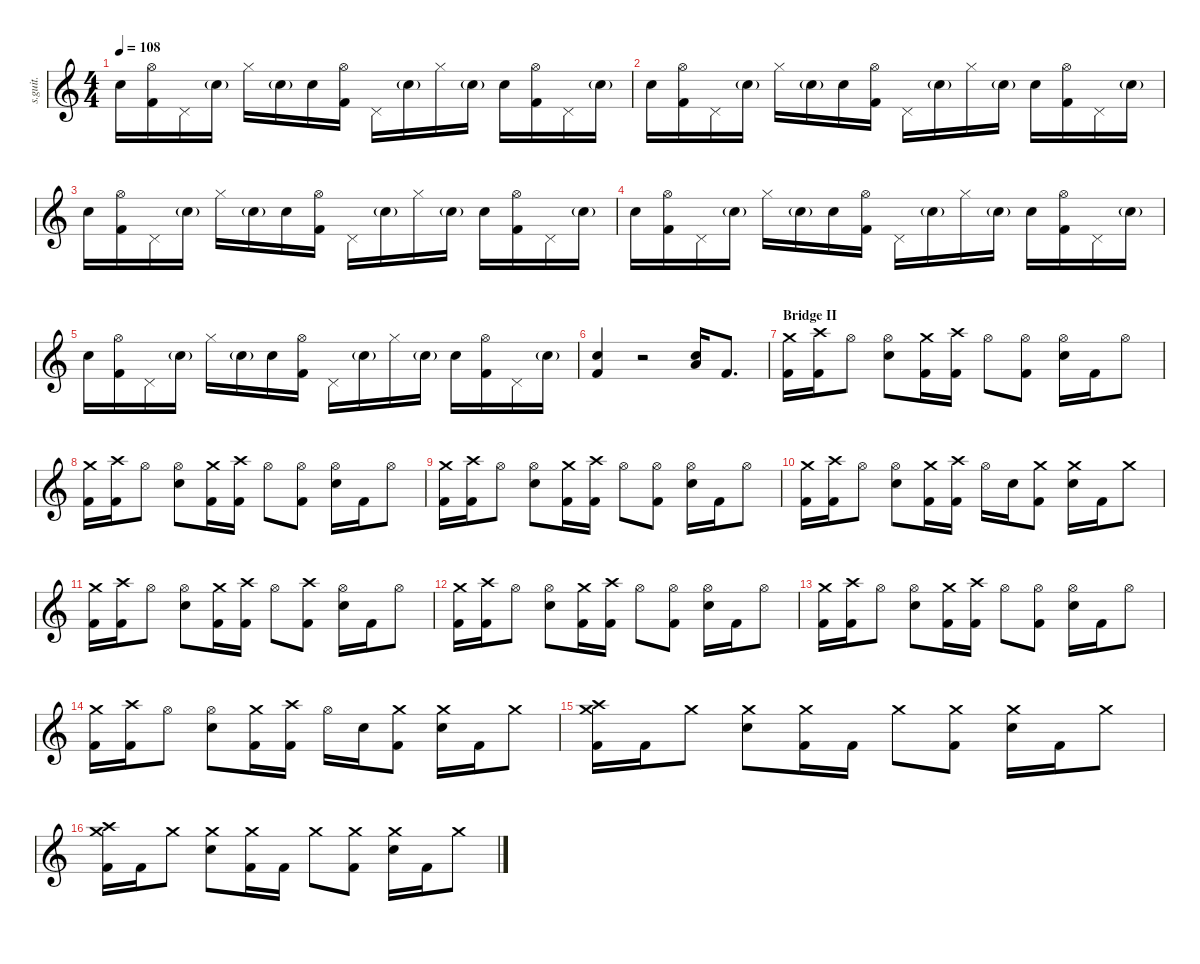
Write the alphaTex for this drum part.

\defaultSystemsLayout 4
\hideDynamics
\bracketExtendMode nobrackets
\track ("John Otto" "s.guit.") {instrument percussion}
\staff {score}
\articulation defaults
\ts (4 4)
\tempo 108
\clef g2
\ks c "Snare (hit) 2".16{lyrics (0 "") lyrics (1 "") lyrics (2 "") lyrics (3 "") lyrics (4 "") dy ff}
("Kick (hit) 2" "Hi-Hat (open)").16{lyrics (0 "") lyrics (1 "") lyrics (2 "") lyrics (3 "") lyrics (4 "")} "Pedal Hi-Hat (hit)".16{lyrics (0 "") lyrics (1 "") lyrics (2 "") lyrics (3 "") lyrics (4 "")} "Snare (hit) 2"{g}.16{lyrics (0 "") lyrics (1 "") lyrics (2 "") lyrics (3 "") lyrics (4 "")} "Hi-Hat (closed)".16{lyrics (0 "") lyrics (1 "") lyrics (2 "") lyrics (3 "") lyrics (4 "")} "Snare (hit) 2"{g}.16{lyrics (0 "") lyrics (1 "") lyrics (2 "") lyrics (3 "") lyrics (4 "")} "Snare (hit) 2".16{lyrics (0 "") lyrics (1 "") lyrics (2 "") lyrics (3 "") lyrics (4 "")} ("Kick (hit) 2" "Hi-Hat (open)").16{lyrics (0 "") lyrics (1 "") lyrics (2 "") lyrics (3 "") lyrics (4 "")} "Pedal Hi-Hat (hit)".16{lyrics (0 "") lyrics (1 "") lyrics (2 "") lyrics (3 "") lyrics (4 "")} "Snare (hit) 2"{g}.16{lyrics (0 "") lyrics (1 "") lyrics (2 "") lyrics (3 "") lyrics (4 "")} "Hi-Hat (closed)".16{lyrics (0 "") lyrics (1 "") lyrics (2 "") lyrics (3 "") lyrics (4 "")} "Snare (hit) 2"{g}.16{lyrics (0 "") lyrics (1 "") lyrics (2 "") lyrics (3 "") lyrics (4 "")} "Snare (hit) 2".16{lyrics (0 "") lyrics (1 "") lyrics (2 "") lyrics (3 "") lyrics (4 "")} ("Kick (hit) 2" "Hi-Hat (open)").16{lyrics (0 "") lyrics (1 "") lyrics (2 "") lyrics (3 "") lyrics (4 "")} "Pedal Hi-Hat (hit)".16{lyrics (0 "") lyrics (1 "") lyrics (2 "") lyrics (3 "") lyrics (4 "")} "Snare (hit) 2"{g}.16{lyrics (0 "") lyrics (1 "") lyrics (2 "") lyrics (3 "") lyrics (4 "")} |
"Snare (hit) 2".16{lyrics (0 "") lyrics (1 "") lyrics (2 "") lyrics (3 "") lyrics (4 "")} ("Kick (hit) 2" "Hi-Hat (open)").16{lyrics (0 "") lyrics (1 "") lyrics (2 "") lyrics (3 "") lyrics (4 "")} "Pedal Hi-Hat (hit)".16{lyrics (0 "") lyrics (1 "") lyrics (2 "") lyrics (3 "") lyrics (4 "")} "Snare (hit) 2"{g}.16{lyrics (0 "") lyrics (1 "") lyrics (2 "") lyrics (3 "") lyrics (4 "")} "Hi-Hat (closed)".16{lyrics (0 "") lyrics (1 "") lyrics (2 "") lyrics (3 "") lyrics (4 "")} "Snare (hit) 2"{g}.16{lyrics (0 "") lyrics (1 "") lyrics (2 "") lyrics (3 "") lyrics (4 "")} "Snare (hit) 2".16{lyrics (0 "") lyrics (1 "") lyrics (2 "") lyrics (3 "") lyrics (4 "")} ("Kick (hit) 2" "Hi-Hat (open)").16{lyrics (0 "") lyrics (1 "") lyrics (2 "") lyrics (3 "") lyrics (4 "")} "Pedal Hi-Hat (hit)".16{lyrics (0 "") lyrics (1 "") lyrics (2 "") lyrics (3 "") lyrics (4 "")} "Snare (hit) 2"{g}.16{lyrics (0 "") lyrics (1 "") lyrics (2 "") lyrics (3 "") lyrics (4 "")} "Hi-Hat (closed)".16{lyrics (0 "") lyrics (1 "") lyrics (2 "") lyrics (3 "") lyrics (4 "")} "Snare (hit) 2"{g}.16{lyrics (0 "") lyrics (1 "") lyrics (2 "") lyrics (3 "") lyrics (4 "")} "Snare (hit) 2".16{lyrics (0 "") lyrics (1 "") lyrics (2 "") lyrics (3 "") lyrics (4 "")} ("Kick (hit) 2" "Hi-Hat (open)").16{lyrics (0 "") lyrics (1 "") lyrics (2 "") lyrics (3 "") lyrics (4 "")} "Pedal Hi-Hat (hit)".16{lyrics (0 "") lyrics (1 "") lyrics (2 "") lyrics (3 "") lyrics (4 "")} "Snare (hit) 2"{g}.16{lyrics (0 "") lyrics (1 "") lyrics (2 "") lyrics (3 "") lyrics (4 "")} |
"Snare (hit) 2".16{lyrics (0 "") lyrics (1 "") lyrics (2 "") lyrics (3 "") lyrics (4 "")} ("Kick (hit) 2" "Hi-Hat (open)").16{lyrics (0 "") lyrics (1 "") lyrics (2 "") lyrics (3 "") lyrics (4 "")} "Pedal Hi-Hat (hit)".16{lyrics (0 "") lyrics (1 "") lyrics (2 "") lyrics (3 "") lyrics (4 "")} "Snare (hit) 2"{g}.16{lyrics (0 "") lyrics (1 "") lyrics (2 "") lyrics (3 "") lyrics (4 "")} "Hi-Hat (closed)".16{lyrics (0 "") lyrics (1 "") lyrics (2 "") lyrics (3 "") lyrics (4 "")} "Snare (hit) 2"{g}.16{lyrics (0 "") lyrics (1 "") lyrics (2 "") lyrics (3 "") lyrics (4 "")} "Snare (hit) 2".16{lyrics (0 "") lyrics (1 "") lyrics (2 "") lyrics (3 "") lyrics (4 "")} ("Kick (hit) 2" "Hi-Hat (open)").16{lyrics (0 "") lyrics (1 "") lyrics (2 "") lyrics (3 "") lyrics (4 "")} "Pedal Hi-Hat (hit)".16{lyrics (0 "") lyrics (1 "") lyrics (2 "") lyrics (3 "") lyrics (4 "")} "Snare (hit) 2"{g}.16{lyrics (0 "") lyrics (1 "") lyrics (2 "") lyrics (3 "") lyrics (4 "")} "Hi-Hat (closed)".16{lyrics (0 "") lyrics (1 "") lyrics (2 "") lyrics (3 "") lyrics (4 "")} "Snare (hit) 2"{g}.16{lyrics (0 "") lyrics (1 "") lyrics (2 "") lyrics (3 "") lyrics (4 "")} "Snare (hit) 2".16{lyrics (0 "") lyrics (1 "") lyrics (2 "") lyrics (3 "") lyrics (4 "")} ("Kick (hit) 2" "Hi-Hat (open)").16{lyrics (0 "") lyrics (1 "") lyrics (2 "") lyrics (3 "") lyrics (4 "")} "Pedal Hi-Hat (hit)".16{lyrics (0 "") lyrics (1 "") lyrics (2 "") lyrics (3 "") lyrics (4 "")} "Snare (hit) 2"{g}.16{lyrics (0 "") lyrics (1 "") lyrics (2 "") lyrics (3 "") lyrics (4 "")} |
"Snare (hit) 2".16{lyrics (0 "") lyrics (1 "") lyrics (2 "") lyrics (3 "") lyrics (4 "")} ("Kick (hit) 2" "Hi-Hat (open)").16{lyrics (0 "") lyrics (1 "") lyrics (2 "") lyrics (3 "") lyrics (4 "")} "Pedal Hi-Hat (hit)".16{lyrics (0 "") lyrics (1 "") lyrics (2 "") lyrics (3 "") lyrics (4 "")} "Snare (hit) 2"{g}.16{lyrics (0 "") lyrics (1 "") lyrics (2 "") lyrics (3 "") lyrics (4 "")} "Hi-Hat (closed)".16{lyrics (0 "") lyrics (1 "") lyrics (2 "") lyrics (3 "") lyrics (4 "")} "Snare (hit) 2"{g}.16{lyrics (0 "") lyrics (1 "") lyrics (2 "") lyrics (3 "") lyrics (4 "")} "Snare (hit) 2".16{lyrics (0 "") lyrics (1 "") lyrics (2 "") lyrics (3 "") lyrics (4 "")} ("Kick (hit) 2" "Hi-Hat (open)").16{lyrics (0 "") lyrics (1 "") lyrics (2 "") lyrics (3 "") lyrics (4 "")} "Pedal Hi-Hat (hit)".16{lyrics (0 "") lyrics (1 "") lyrics (2 "") lyrics (3 "") lyrics (4 "")} "Snare (hit) 2"{g}.16{lyrics (0 "") lyrics (1 "") lyrics (2 "") lyrics (3 "") lyrics (4 "")} "Hi-Hat (closed)".16{lyrics (0 "") lyrics (1 "") lyrics (2 "") lyrics (3 "") lyrics (4 "")} "Snare (hit) 2"{g}.16{lyrics (0 "") lyrics (1 "") lyrics (2 "") lyrics (3 "") lyrics (4 "")} "Snare (hit) 2".16{lyrics (0 "") lyrics (1 "") lyrics (2 "") lyrics (3 "") lyrics (4 "")} ("Kick (hit) 2" "Hi-Hat (open)").16{lyrics (0 "") lyrics (1 "") lyrics (2 "") lyrics (3 "") lyrics (4 "")} "Pedal Hi-Hat (hit)".16{lyrics (0 "") lyrics (1 "") lyrics (2 "") lyrics (3 "") lyrics (4 "")} "Snare (hit) 2"{g}.16{lyrics (0 "") lyrics (1 "") lyrics (2 "") lyrics (3 "") lyrics (4 "")} |
"Snare (hit) 2".16{lyrics (0 "") lyrics (1 "") lyrics (2 "") lyrics (3 "") lyrics (4 "")} ("Kick (hit) 2" "Hi-Hat (open)").16{lyrics (0 "") lyrics (1 "") lyrics (2 "") lyrics (3 "") lyrics (4 "")} "Pedal Hi-Hat (hit)".16{lyrics (0 "") lyrics (1 "") lyrics (2 "") lyrics (3 "") lyrics (4 "")} "Snare (hit) 2"{g}.16{lyrics (0 "") lyrics (1 "") lyrics (2 "") lyrics (3 "") lyrics (4 "")} "Hi-Hat (closed)".16{lyrics (0 "") lyrics (1 "") lyrics (2 "") lyrics (3 "") lyrics (4 "")} "Snare (hit) 2"{g}.16{lyrics (0 "") lyrics (1 "") lyrics (2 "") lyrics (3 "") lyrics (4 "")} "Snare (hit) 2".16{lyrics (0 "") lyrics (1 "") lyrics (2 "") lyrics (3 "") lyrics (4 "")} ("Kick (hit) 2" "Hi-Hat (open)").16{lyrics (0 "") lyrics (1 "") lyrics (2 "") lyrics (3 "") lyrics (4 "")} "Pedal Hi-Hat (hit)".16{lyrics (0 "") lyrics (1 "") lyrics (2 "") lyrics (3 "") lyrics (4 "")} "Snare (hit) 2"{g}.16{lyrics (0 "") lyrics (1 "") lyrics (2 "") lyrics (3 "") lyrics (4 "")} "Hi-Hat (closed)".16{lyrics (0 "") lyrics (1 "") lyrics (2 "") lyrics (3 "") lyrics (4 "")} "Snare (hit) 2"{g}.16{lyrics (0 "") lyrics (1 "") lyrics (2 "") lyrics (3 "") lyrics (4 "")} "Snare (hit) 2".16{lyrics (0 "") lyrics (1 "") lyrics (2 "") lyrics (3 "") lyrics (4 "")} ("Kick (hit) 2" "Hi-Hat (open)").16{lyrics (0 "") lyrics (1 "") lyrics (2 "") lyrics (3 "") lyrics (4 "")} "Pedal Hi-Hat (hit)".16{lyrics (0 "") lyrics (1 "") lyrics (2 "") lyrics (3 "") lyrics (4 "")} "Snare (hit) 2"{g}.16{lyrics (0 "") lyrics (1 "") lyrics (2 "") lyrics (3 "") lyrics (4 "")} |
("Kick (hit) 2" "Snare (hit) 2").4{lyrics (0 "") lyrics (1 "") lyrics (2 "") lyrics (3 "") lyrics (4 "")} r.2 ("Snare (hit) 2" "Low Floor Tom (hit)").16{lyrics (0 "") lyrics (1 "") lyrics (2 "") lyrics (3 "") lyrics (4 "")} "Kick (hit) 2".8{d lyrics (0 "") lyrics (1 "") lyrics (2 "") lyrics (3 "") lyrics (4 "")} |
\section ("" "Bridge II")
("Kick (hit) 2" "Crash medium (hit)").16{lyrics (0 "") lyrics (1 "") lyrics (2 "") lyrics (3 "") lyrics (4 "")} ("Crash high (hit)" "Kick (hit) 2").16{lyrics (0 "") lyrics (1 "") lyrics (2 "") lyrics (3 "") lyrics (4 "")} "Hi-Hat (open)".8{lyrics (0 "") lyrics (1 "") lyrics (2 "") lyrics (3 "") lyrics (4 "")} ("Hi-Hat (open)" "Snare (hit) 2").8{lyrics (0 "") lyrics (1 "") lyrics (2 "") lyrics (3 "") lyrics (4 "")} ("Kick (hit) 2" "Crash medium (hit)").16{lyrics (0 "") lyrics (1 "") lyrics (2 "") lyrics (3 "") lyrics (4 "")} ("Kick (hit) 2" "Crash high (hit)").16{lyrics (0 "") lyrics (1 "") lyrics (2 "") lyrics (3 "") lyrics (4 "")} "Hi-Hat (open)".8{lyrics (0 "") lyrics (1 "") lyrics (2 "") lyrics (3 "") lyrics (4 "")} ("Hi-Hat (open)" "Kick (hit) 2").8{lyrics (0 "") lyrics (1 "") lyrics (2 "") lyrics (3 "") lyrics (4 "")} ("Hi-Hat (open)" "Snare (hit) 2").16{lyrics (0 "") lyrics (1 "") lyrics (2 "") lyrics (3 "") lyrics (4 "")} "Kick (hit) 2".16{lyrics (0 "") lyrics (1 "") lyrics (2 "") lyrics (3 "") lyrics (4 "")} "Hi-Hat (open)".8{lyrics (0 "") lyrics (1 "") lyrics (2 "") lyrics (3 "") lyrics (4 "")} |
("Kick (hit) 2" "Crash medium (hit)").16{lyrics (0 "") lyrics (1 "") lyrics (2 "") lyrics (3 "") lyrics (4 "")} ("Crash high (hit)" "Kick (hit) 2").16{lyrics (0 "") lyrics (1 "") lyrics (2 "") lyrics (3 "") lyrics (4 "")} "Hi-Hat (open)".8{lyrics (0 "") lyrics (1 "") lyrics (2 "") lyrics (3 "") lyrics (4 "")} ("Hi-Hat (open)" "Snare (hit) 2").8{lyrics (0 "") lyrics (1 "") lyrics (2 "") lyrics (3 "") lyrics (4 "")} ("Kick (hit) 2" "Crash medium (hit)").16{lyrics (0 "") lyrics (1 "") lyrics (2 "") lyrics (3 "") lyrics (4 "")} ("Kick (hit) 2" "Crash high (hit)").16{lyrics (0 "") lyrics (1 "") lyrics (2 "") lyrics (3 "") lyrics (4 "")} "Hi-Hat (open)".8{lyrics (0 "") lyrics (1 "") lyrics (2 "") lyrics (3 "") lyrics (4 "")} ("Hi-Hat (open)" "Kick (hit) 2").8{lyrics (0 "") lyrics (1 "") lyrics (2 "") lyrics (3 "") lyrics (4 "")} ("Hi-Hat (open)" "Snare (hit) 2").16{lyrics (0 "") lyrics (1 "") lyrics (2 "") lyrics (3 "") lyrics (4 "")} "Kick (hit) 2".16{lyrics (0 "") lyrics (1 "") lyrics (2 "") lyrics (3 "") lyrics (4 "")} "Hi-Hat (open)".8{lyrics (0 "") lyrics (1 "") lyrics (2 "") lyrics (3 "") lyrics (4 "")} |
("Kick (hit) 2" "Crash medium (hit)").16{lyrics (0 "") lyrics (1 "") lyrics (2 "") lyrics (3 "") lyrics (4 "")} ("Crash high (hit)" "Kick (hit) 2").16{lyrics (0 "") lyrics (1 "") lyrics (2 "") lyrics (3 "") lyrics (4 "")} "Hi-Hat (open)".8{lyrics (0 "") lyrics (1 "") lyrics (2 "") lyrics (3 "") lyrics (4 "")} ("Hi-Hat (open)" "Snare (hit) 2").8{lyrics (0 "") lyrics (1 "") lyrics (2 "") lyrics (3 "") lyrics (4 "")} ("Kick (hit) 2" "Crash medium (hit)").16{lyrics (0 "") lyrics (1 "") lyrics (2 "") lyrics (3 "") lyrics (4 "")} ("Kick (hit) 2" "Crash high (hit)").16{lyrics (0 "") lyrics (1 "") lyrics (2 "") lyrics (3 "") lyrics (4 "")} "Hi-Hat (open)".8{lyrics (0 "") lyrics (1 "") lyrics (2 "") lyrics (3 "") lyrics (4 "")} ("Hi-Hat (open)" "Kick (hit) 2").8{lyrics (0 "") lyrics (1 "") lyrics (2 "") lyrics (3 "") lyrics (4 "")} ("Hi-Hat (open)" "Snare (hit) 2").16{lyrics (0 "") lyrics (1 "") lyrics (2 "") lyrics (3 "") lyrics (4 "")} "Kick (hit) 2".16{lyrics (0 "") lyrics (1 "") lyrics (2 "") lyrics (3 "") lyrics (4 "")} "Hi-Hat (open)".8{lyrics (0 "") lyrics (1 "") lyrics (2 "") lyrics (3 "") lyrics (4 "")} |
("Kick (hit) 2" "Crash medium (hit)").16{lyrics (0 "") lyrics (1 "") lyrics (2 "") lyrics (3 "") lyrics (4 "")} ("Crash high (hit)" "Kick (hit) 2").16{lyrics (0 "") lyrics (1 "") lyrics (2 "") lyrics (3 "") lyrics (4 "")} "Hi-Hat (open)".8{lyrics (0 "") lyrics (1 "") lyrics (2 "") lyrics (3 "") lyrics (4 "")} ("Hi-Hat (open)" "Snare (hit) 2").8{lyrics (0 "") lyrics (1 "") lyrics (2 "") lyrics (3 "") lyrics (4 "")} ("Kick (hit) 2" "Crash medium (hit)").16{lyrics (0 "") lyrics (1 "") lyrics (2 "") lyrics (3 "") lyrics (4 "")} ("Kick (hit) 2" "Crash high (hit)").16{lyrics (0 "") lyrics (1 "") lyrics (2 "") lyrics (3 "") lyrics (4 "")} "Hi-Hat (open)".16{lyrics (0 "") lyrics (1 "") lyrics (2 "") lyrics (3 "") lyrics (4 "")} "Snare (hit) 2".16{lyrics (0 "") lyrics (1 "") lyrics (2 "") lyrics (3 "") lyrics (4 "")} ("Kick (hit) 2" "Crash medium (hit)").8{lyrics (0 "") lyrics (1 "") lyrics (2 "") lyrics (3 "") lyrics (4 "")} ("Snare (hit) 2" "Crash medium (hit)").16{lyrics (0 "") lyrics (1 "") lyrics (2 "") lyrics (3 "") lyrics (4 "")} "Kick (hit) 2".16{lyrics (0 "") lyrics (1 "") lyrics (2 "") lyrics (3 "") lyrics (4 "")} "Crash medium (hit)".8{lyrics (0 "") lyrics (1 "") lyrics (2 "") lyrics (3 "") lyrics (4 "")} |
("Kick (hit) 2" "Crash medium (hit)").16{lyrics (0 "") lyrics (1 "") lyrics (2 "") lyrics (3 "") lyrics (4 "")} ("Crash high (hit)" "Kick (hit) 2").16{lyrics (0 "") lyrics (1 "") lyrics (2 "") lyrics (3 "") lyrics (4 "")} "Hi-Hat (open)".8{lyrics (0 "") lyrics (1 "") lyrics (2 "") lyrics (3 "") lyrics (4 "")} ("Hi-Hat (open)" "Snare (hit) 2").8{lyrics (0 "") lyrics (1 "") lyrics (2 "") lyrics (3 "") lyrics (4 "")} ("Kick (hit) 2" "Crash medium (hit)").16{lyrics (0 "") lyrics (1 "") lyrics (2 "") lyrics (3 "") lyrics (4 "")} ("Kick (hit) 2" "Crash high (hit)").16{lyrics (0 "") lyrics (1 "") lyrics (2 "") lyrics (3 "") lyrics (4 "")} "Hi-Hat (open)".8{lyrics (0 "") lyrics (1 "") lyrics (2 "") lyrics (3 "") lyrics (4 "")} ("Kick (hit) 2" "Crash high (hit)").8{lyrics (0 "") lyrics (1 "") lyrics (2 "") lyrics (3 "") lyrics (4 "")} ("Hi-Hat (open)" "Snare (hit) 2").16{lyrics (0 "") lyrics (1 "") lyrics (2 "") lyrics (3 "") lyrics (4 "")} "Kick (hit) 2".16{lyrics (0 "") lyrics (1 "") lyrics (2 "") lyrics (3 "") lyrics (4 "")} "Hi-Hat (open)".8{lyrics (0 "") lyrics (1 "") lyrics (2 "") lyrics (3 "") lyrics (4 "")} |
("Kick (hit) 2" "Crash medium (hit)").16{lyrics (0 "") lyrics (1 "") lyrics (2 "") lyrics (3 "") lyrics (4 "")} ("Crash high (hit)" "Kick (hit) 2").16{lyrics (0 "") lyrics (1 "") lyrics (2 "") lyrics (3 "") lyrics (4 "")} "Hi-Hat (open)".8{lyrics (0 "") lyrics (1 "") lyrics (2 "") lyrics (3 "") lyrics (4 "")} ("Hi-Hat (open)" "Snare (hit) 2").8{lyrics (0 "") lyrics (1 "") lyrics (2 "") lyrics (3 "") lyrics (4 "")} ("Kick (hit) 2" "Crash medium (hit)").16{lyrics (0 "") lyrics (1 "") lyrics (2 "") lyrics (3 "") lyrics (4 "")} ("Kick (hit) 2" "Crash high (hit)").16{lyrics (0 "") lyrics (1 "") lyrics (2 "") lyrics (3 "") lyrics (4 "")} "Hi-Hat (open)".8{lyrics (0 "") lyrics (1 "") lyrics (2 "") lyrics (3 "") lyrics (4 "")} ("Hi-Hat (open)" "Kick (hit) 2").8{lyrics (0 "") lyrics (1 "") lyrics (2 "") lyrics (3 "") lyrics (4 "")} ("Hi-Hat (open)" "Snare (hit) 2").16{lyrics (0 "") lyrics (1 "") lyrics (2 "") lyrics (3 "") lyrics (4 "")} "Kick (hit) 2".16{lyrics (0 "") lyrics (1 "") lyrics (2 "") lyrics (3 "") lyrics (4 "")} "Hi-Hat (open)".8{lyrics (0 "") lyrics (1 "") lyrics (2 "") lyrics (3 "") lyrics (4 "")} |
("Kick (hit) 2" "Crash medium (hit)").16{lyrics (0 "") lyrics (1 "") lyrics (2 "") lyrics (3 "") lyrics (4 "")} ("Crash high (hit)" "Kick (hit) 2").16{lyrics (0 "") lyrics (1 "") lyrics (2 "") lyrics (3 "") lyrics (4 "")} "Hi-Hat (open)".8{lyrics (0 "") lyrics (1 "") lyrics (2 "") lyrics (3 "") lyrics (4 "")} ("Hi-Hat (open)" "Snare (hit) 2").8{lyrics (0 "") lyrics (1 "") lyrics (2 "") lyrics (3 "") lyrics (4 "")} ("Kick (hit) 2" "Crash medium (hit)").16{lyrics (0 "") lyrics (1 "") lyrics (2 "") lyrics (3 "") lyrics (4 "")} ("Kick (hit) 2" "Crash high (hit)").16{lyrics (0 "") lyrics (1 "") lyrics (2 "") lyrics (3 "") lyrics (4 "")} "Hi-Hat (open)".8{lyrics (0 "") lyrics (1 "") lyrics (2 "") lyrics (3 "") lyrics (4 "")} ("Hi-Hat (open)" "Kick (hit) 2").8{lyrics (0 "") lyrics (1 "") lyrics (2 "") lyrics (3 "") lyrics (4 "")} ("Hi-Hat (open)" "Snare (hit) 2").16{lyrics (0 "") lyrics (1 "") lyrics (2 "") lyrics (3 "") lyrics (4 "")} "Kick (hit) 2".16{lyrics (0 "") lyrics (1 "") lyrics (2 "") lyrics (3 "") lyrics (4 "")} "Hi-Hat (open)".8{lyrics (0 "") lyrics (1 "") lyrics (2 "") lyrics (3 "") lyrics (4 "")} |
("Kick (hit) 2" "Crash medium (hit)").16{lyrics (0 "") lyrics (1 "") lyrics (2 "") lyrics (3 "") lyrics (4 "")} ("Crash high (hit)" "Kick (hit) 2").16{lyrics (0 "") lyrics (1 "") lyrics (2 "") lyrics (3 "") lyrics (4 "")} "Hi-Hat (open)".8{lyrics (0 "") lyrics (1 "") lyrics (2 "") lyrics (3 "") lyrics (4 "")} ("Hi-Hat (open)" "Snare (hit) 2").8{lyrics (0 "") lyrics (1 "") lyrics (2 "") lyrics (3 "") lyrics (4 "")} ("Kick (hit) 2" "Crash medium (hit)").16{lyrics (0 "") lyrics (1 "") lyrics (2 "") lyrics (3 "") lyrics (4 "")} ("Kick (hit) 2" "Crash high (hit)").16{lyrics (0 "") lyrics (1 "") lyrics (2 "") lyrics (3 "") lyrics (4 "")} "Hi-Hat (open)".16{lyrics (0 "") lyrics (1 "") lyrics (2 "") lyrics (3 "") lyrics (4 "")} "Snare (hit) 2".16{lyrics (0 "") lyrics (1 "") lyrics (2 "") lyrics (3 "") lyrics (4 "")} ("Kick (hit) 2" "Crash medium (hit)").8{lyrics (0 "") lyrics (1 "") lyrics (2 "") lyrics (3 "") lyrics (4 "")} ("Snare (hit) 2" "Crash medium (hit)").16{lyrics (0 "") lyrics (1 "") lyrics (2 "") lyrics (3 "") lyrics (4 "")} "Kick (hit) 2".16{lyrics (0 "") lyrics (1 "") lyrics (2 "") lyrics (3 "") lyrics (4 "")} "Crash medium (hit)".8{lyrics (0 "") lyrics (1 "") lyrics (2 "") lyrics (3 "") lyrics (4 "")} |
("Kick (hit) 2" "Crash medium (hit)" "Crash high (hit)").16{lyrics (0 "") lyrics (1 "") lyrics (2 "") lyrics (3 "") lyrics (4 "")} "Kick (hit) 2".16{lyrics (0 "") lyrics (1 "") lyrics (2 "") lyrics (3 "") lyrics (4 "")} "Crash medium (hit)".8{lyrics (0 "") lyrics (1 "") lyrics (2 "") lyrics (3 "") lyrics (4 "")} ("Snare (hit) 2" "Crash medium (hit)").8{lyrics (0 "") lyrics (1 "") lyrics (2 "") lyrics (3 "") lyrics (4 "")} ("Kick (hit) 2" "Crash medium (hit)").16{lyrics (0 "") lyrics (1 "") lyrics (2 "") lyrics (3 "") lyrics (4 "")} "Kick (hit) 2".16{lyrics (0 "") lyrics (1 "") lyrics (2 "") lyrics (3 "") lyrics (4 "")} "Crash medium (hit)".8{lyrics (0 "") lyrics (1 "") lyrics (2 "") lyrics (3 "") lyrics (4 "")} ("Kick (hit) 2" "Crash medium (hit)").8{lyrics (0 "") lyrics (1 "") lyrics (2 "") lyrics (3 "") lyrics (4 "")} ("Snare (hit) 2" "Crash medium (hit)").16{lyrics (0 "") lyrics (1 "") lyrics (2 "") lyrics (3 "") lyrics (4 "")} "Kick (hit) 2".16{lyrics (0 "") lyrics (1 "") lyrics (2 "") lyrics (3 "") lyrics (4 "")} "Crash medium (hit)".8{lyrics (0 "") lyrics (1 "") lyrics (2 "") lyrics (3 "") lyrics (4 "")} |
("Kick (hit) 2" "Crash medium (hit)" "Crash high (hit)").16{lyrics (0 "") lyrics (1 "") lyrics (2 "") lyrics (3 "") lyrics (4 "")} "Kick (hit) 2".16{lyrics (0 "") lyrics (1 "") lyrics (2 "") lyrics (3 "") lyrics (4 "")} "Crash medium (hit)".8{lyrics (0 "") lyrics (1 "") lyrics (2 "") lyrics (3 "") lyrics (4 "")} ("Snare (hit) 2" "Crash medium (hit)").8{lyrics (0 "") lyrics (1 "") lyrics (2 "") lyrics (3 "") lyrics (4 "")} ("Kick (hit) 2" "Crash medium (hit)").16{lyrics (0 "") lyrics (1 "") lyrics (2 "") lyrics (3 "") lyrics (4 "")} "Kick (hit) 2".16{lyrics (0 "") lyrics (1 "") lyrics (2 "") lyrics (3 "") lyrics (4 "")} "Crash medium (hit)".8{lyrics (0 "") lyrics (1 "") lyrics (2 "") lyrics (3 "") lyrics (4 "")} ("Kick (hit) 2" "Crash medium (hit)").8{lyrics (0 "") lyrics (1 "") lyrics (2 "") lyrics (3 "") lyrics (4 "")} ("Snare (hit) 2" "Crash medium (hit)").16{lyrics (0 "") lyrics (1 "") lyrics (2 "") lyrics (3 "") lyrics (4 "")} "Kick (hit) 2".16{lyrics (0 "") lyrics (1 "") lyrics (2 "") lyrics (3 "") lyrics (4 "")} "Crash medium (hit)".8{lyrics (0 "") lyrics (1 "") lyrics (2 "") lyrics (3 "") lyrics (4 "")}
